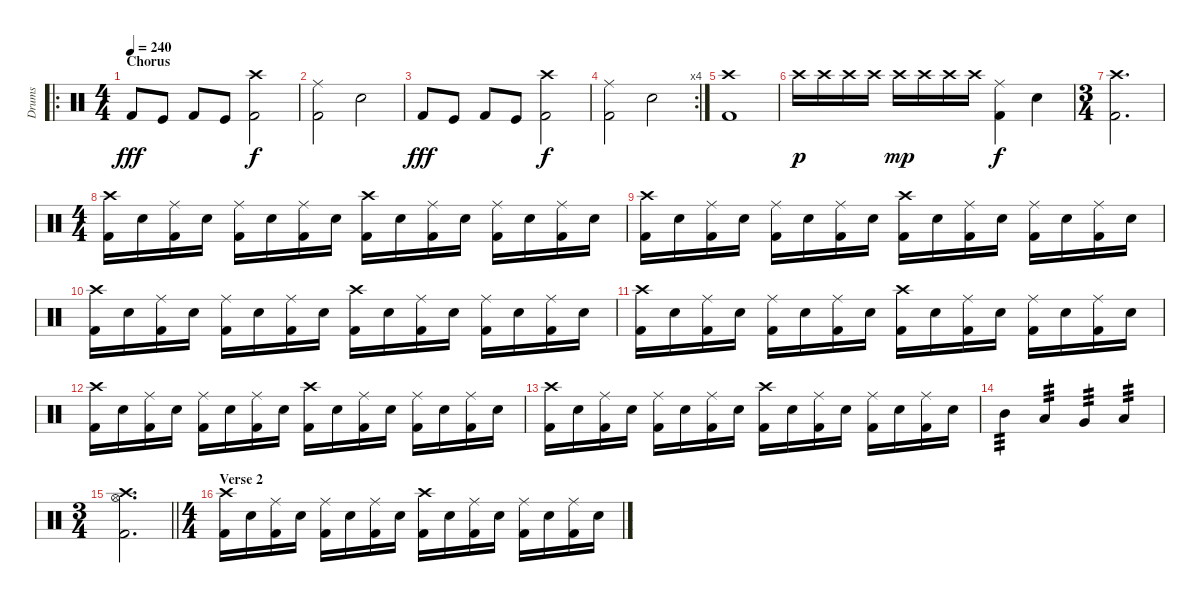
\track ("Drums" "Drums") {instrument percussion}
\staff {score}
\articulation defaults
\ro
\ts (4 4)
\section ("" "Chorus")
\tempo 240
\clef neutral
\ks c "Kick (hit) 2".8{dy fff} "Kick (hit)".8 "Kick (hit) 2".8 "Kick (hit)".8
("Crash high (hit)" "Kick (hit) 2").2{dy f} |
("Ride (middle)" "Kick (hit) 2").2 "Snare (hit) 2".2 |
"Kick (hit) 2".8{dy fff} "Kick (hit)".8 "Kick (hit) 2".8 "Kick (hit)".8 ("Crash high (hit)" "Kick (hit) 2").2{dy f} |
\rc 4
("Ride (middle)" "Kick (hit) 2").2 "Snare (hit) 2".2 |
("Crash high (hit)" "Kick (hit) 2").1 |
"Crash high (hit)".16{dy p} "Crash high (hit)".16 "Crash high (hit)".16 "Crash high (hit)".16 "Crash high (hit)".16{dy mp} "Crash high (hit)".16 "Crash high (hit)".16 "Crash high (hit)".16 ("Ride (middle)" "Kick (hit) 2").4{dy f} "Snare (hit) 2".4 |
\ts (3 4)
("Crash high (hit)" "Kick (hit) 2").2{d} |
\ts (4 4)
("Crash high (hit)" "Kick (hit) 2").16 "Electric Snare (hit)".16 ("Ride (middle)" "Kick (hit) 2").16 "Electric Snare (hit)".16 ("Ride (middle)" "Kick (hit) 2").16 "Electric Snare (hit)".16 ("Ride (middle)" "Kick (hit) 2").16 "Electric Snare (hit)".16 ("Crash high (hit)" "Kick (hit) 2").16 "Electric Snare (hit)".16 ("Ride (middle)" "Kick (hit) 2").16 "Electric Snare (hit)".16 ("Ride (middle)" "Kick (hit) 2").16 "Electric Snare (hit)".16 ("Ride (middle)" "Kick (hit) 2").16 "Electric Snare (hit)".16 |
("Crash high (hit)" "Kick (hit) 2").16 "Electric Snare (hit)".16 ("Ride (middle)" "Kick (hit) 2").16 "Electric Snare (hit)".16 ("Ride (middle)" "Kick (hit) 2").16 "Electric Snare (hit)".16 ("Ride (middle)" "Kick (hit) 2").16 "Electric Snare (hit)".16 ("Crash high (hit)" "Kick (hit) 2").16 "Electric Snare (hit)".16 ("Ride (middle)" "Kick (hit) 2").16 "Electric Snare (hit)".16 ("Ride (middle)" "Kick (hit) 2").16 "Electric Snare (hit)".16 ("Ride (middle)" "Kick (hit) 2").16 "Electric Snare (hit)".16 |
("Crash high (hit)" "Kick (hit) 2").16 "Electric Snare (hit)".16 ("Ride (middle)" "Kick (hit) 2").16 "Electric Snare (hit)".16 ("Ride (middle)" "Kick (hit) 2").16 "Electric Snare (hit)".16 ("Ride (middle)" "Kick (hit) 2").16 "Electric Snare (hit)".16 ("Crash high (hit)" "Kick (hit) 2").16 "Electric Snare (hit)".16 ("Ride (middle)" "Kick (hit) 2").16 "Electric Snare (hit)".16 ("Ride (middle)" "Kick (hit) 2").16 "Electric Snare (hit)".16 ("Ride (middle)" "Kick (hit) 2").16 "Electric Snare (hit)".16 |
("Crash high (hit)" "Kick (hit) 2").16 "Electric Snare (hit)".16 ("Ride (middle)" "Kick (hit) 2").16 "Electric Snare (hit)".16 ("Ride (middle)" "Kick (hit) 2").16 "Electric Snare (hit)".16 ("Ride (middle)" "Kick (hit) 2").16 "Electric Snare (hit)".16 ("Crash high (hit)" "Kick (hit) 2").16 "Electric Snare (hit)".16 ("Ride (middle)" "Kick (hit) 2").16 "Electric Snare (hit)".16 ("Ride (middle)" "Kick (hit) 2").16 "Electric Snare (hit)".16 ("Ride (middle)" "Kick (hit) 2").16 "Electric Snare (hit)".16 |
("Crash high (hit)" "Kick (hit) 2").16 "Electric Snare (hit)".16 ("Ride (middle)" "Kick (hit) 2").16 "Electric Snare (hit)".16 ("Ride (middle)" "Kick (hit) 2").16 "Electric Snare (hit)".16 ("Ride (middle)" "Kick (hit) 2").16 "Electric Snare (hit)".16 ("Crash high (hit)" "Kick (hit) 2").16 "Electric Snare (hit)".16 ("Ride (middle)" "Kick (hit) 2").16 "Electric Snare (hit)".16 ("Ride (middle)" "Kick (hit) 2").16 "Electric Snare (hit)".16 ("Ride (middle)" "Kick (hit) 2").16 "Electric Snare (hit)".16 |
("Crash high (hit)" "Kick (hit) 2").16 "Electric Snare (hit)".16 ("Ride (middle)" "Kick (hit) 2").16 "Electric Snare (hit)".16 ("Ride (middle)" "Kick (hit) 2").16 "Electric Snare (hit)".16 ("Ride (middle)" "Kick (hit) 2").16 "Electric Snare (hit)".16 ("Crash high (hit)" "Kick (hit) 2").16 "Electric Snare (hit)".16 ("Ride (middle)" "Kick (hit) 2").16 "Electric Snare (hit)".16 ("Ride (middle)" "Kick (hit) 2").16 "Electric Snare (hit)".16 ("Ride (middle)" "Kick (hit) 2").16 "Electric Snare (hit)".16 |
"Mid Tom (hit)".4{tp 3} "Low Tom (hit)".4{tp 3} "Very Low Tom (hit)".4{tp 3} "Low Floor Tom (hit)".4{tp 3} |
\ts (3 4)
\barLineRight lightlight
("Crash high (hit)" "Hi-Hat (open)" "Kick (hit) 2").2{d} |
\ts (4 4)
\section ("" "Verse 2")
("Crash high (hit)" "Kick (hit) 2").16 "Electric Snare (hit)".16 ("Ride (middle)" "Kick (hit) 2").16 "Electric Snare (hit)".16 ("Ride (middle)" "Kick (hit) 2").16 "Electric Snare (hit)".16 ("Ride (middle)" "Kick (hit) 2").16 "Electric Snare (hit)".16 ("Crash high (hit)" "Kick (hit) 2").16 "Electric Snare (hit)".16 ("Ride (middle)" "Kick (hit) 2").16 "Electric Snare (hit)".16 ("Ride (middle)" "Kick (hit) 2").16 "Electric Snare (hit)".16 ("Ride (middle)" "Kick (hit) 2").16 "Electric Snare (hit)".16
